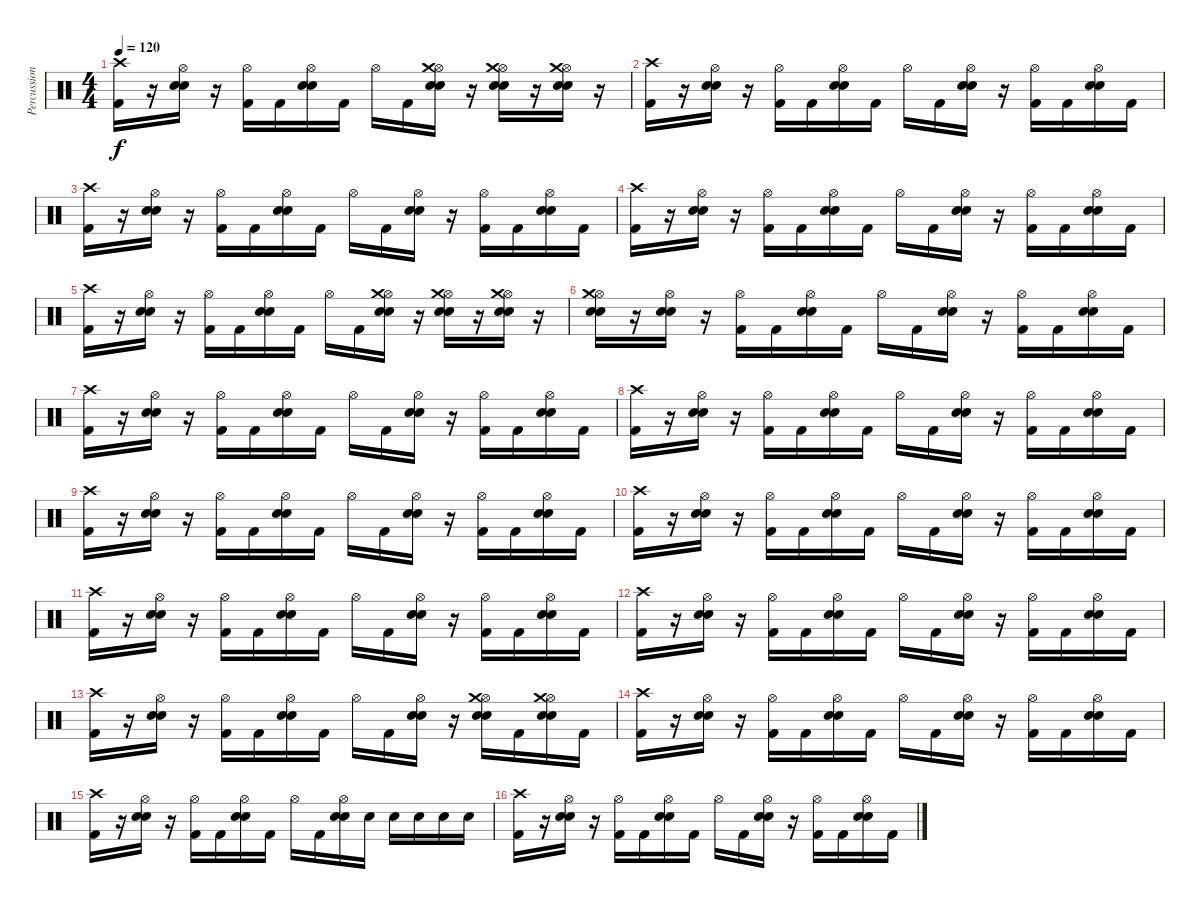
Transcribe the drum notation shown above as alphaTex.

\track ("Percussion" "Percussion") {instrument percussion}
\staff {score}
\articulation defaults
\ts (4 4)
\tempo 120
\clef neutral
\ks c
("Kick (hit) 2" "Crash high (hit)").16{dy f} r.16 ("Hi-Hat (open)" "Electric Snare (hit)" "Snare (hit) 2").16 r.16 ("Kick (hit) 2" "Hi-Hat (open)").16 "Kick (hit) 2".16 ("Electric Snare (hit)" "Hi-Hat (open)" "Snare (hit) 2").16 "Kick (hit) 2".16 "Hi-Hat (open)".16 "Kick (hit) 2".16 ("Hi-Hat (open)" "Electric Snare (hit)" "Snare (hit) 2" "Crash medium (hit)").16 r.16 ("Hi-Hat (open)" "Electric Snare (hit)" "Snare (hit) 2" "Crash medium (hit)").16 r.16 ("Hi-Hat (open)" "Electric Snare (hit)" "Snare (hit) 2" "Crash medium (hit)").16 r.16 |
("Kick (hit) 2" "Crash high (hit)").16 r.16 ("Hi-Hat (open)" "Electric Snare (hit)" "Snare (hit) 2").16 r.16 ("Kick (hit) 2" "Hi-Hat (open)").16 "Kick (hit) 2".16 ("Electric Snare (hit)" "Hi-Hat (open)" "Snare (hit) 2").16 "Kick (hit) 2".16 "Hi-Hat (open)".16 "Kick (hit) 2".16 ("Hi-Hat (open)" "Electric Snare (hit)" "Snare (hit) 2").16 r.16 ("Kick (hit) 2" "Hi-Hat (open)").16 "Kick (hit) 2".16 ("Electric Snare (hit)" "Hi-Hat (open)" "Snare (hit) 2").16 "Kick (hit) 2".16 |
("Kick (hit) 2" "Crash high (hit)").16 r.16 ("Hi-Hat (open)" "Electric Snare (hit)" "Snare (hit) 2").16 r.16 ("Kick (hit) 2" "Hi-Hat (open)").16 "Kick (hit) 2".16 ("Electric Snare (hit)" "Hi-Hat (open)" "Snare (hit) 2").16 "Kick (hit) 2".16 "Hi-Hat (open)".16 "Kick (hit) 2".16 ("Hi-Hat (open)" "Electric Snare (hit)" "Snare (hit) 2").16 r.16 ("Kick (hit) 2" "Hi-Hat (open)").16 "Kick (hit) 2".16 ("Electric Snare (hit)" "Hi-Hat (open)" "Snare (hit) 2").16 "Kick (hit) 2".16 |
("Kick (hit) 2" "Crash high (hit)").16 r.16 ("Hi-Hat (open)" "Electric Snare (hit)" "Snare (hit) 2").16 r.16 ("Kick (hit) 2" "Hi-Hat (open)").16 "Kick (hit) 2".16 ("Electric Snare (hit)" "Hi-Hat (open)" "Snare (hit) 2").16 "Kick (hit) 2".16 "Hi-Hat (open)".16 "Kick (hit) 2".16 ("Hi-Hat (open)" "Electric Snare (hit)" "Snare (hit) 2").16 r.16 ("Kick (hit) 2" "Hi-Hat (open)").16 "Kick (hit) 2".16 ("Electric Snare (hit)" "Hi-Hat (open)" "Snare (hit) 2").16 "Kick (hit) 2".16 |
("Kick (hit) 2" "Crash high (hit)").16 r.16 ("Hi-Hat (open)" "Electric Snare (hit)" "Snare (hit) 2").16 r.16 ("Kick (hit) 2" "Hi-Hat (open)").16 "Kick (hit) 2".16 ("Electric Snare (hit)" "Hi-Hat (open)" "Snare (hit) 2").16 "Kick (hit) 2".16 "Hi-Hat (open)".16 "Kick (hit) 2".16 ("Hi-Hat (open)" "Electric Snare (hit)" "Snare (hit) 2" "Crash medium (hit)").16 r.16 ("Hi-Hat (open)" "Electric Snare (hit)" "Snare (hit) 2" "Crash medium (hit)").16 r.16 ("Hi-Hat (open)" "Electric Snare (hit)" "Snare (hit) 2" "Crash medium (hit)").16 r.16 |
("Hi-Hat (open)" "Electric Snare (hit)" "Snare (hit) 2" "Crash medium (hit)").16 r.16 ("Hi-Hat (open)" "Electric Snare (hit)" "Snare (hit) 2").16 r.16 ("Kick (hit) 2" "Hi-Hat (open)").16 "Kick (hit) 2".16 ("Electric Snare (hit)" "Hi-Hat (open)" "Snare (hit) 2").16 "Kick (hit) 2".16 "Hi-Hat (open)".16 "Kick (hit) 2".16 ("Hi-Hat (open)" "Electric Snare (hit)" "Snare (hit) 2").16 r.16 ("Kick (hit) 2" "Hi-Hat (open)").16 "Kick (hit) 2".16 ("Electric Snare (hit)" "Hi-Hat (open)" "Snare (hit) 2").16 "Kick (hit) 2".16 |
("Kick (hit) 2" "Crash high (hit)").16 r.16 ("Hi-Hat (open)" "Electric Snare (hit)" "Snare (hit) 2").16 r.16 ("Kick (hit) 2" "Hi-Hat (open)").16 "Kick (hit) 2".16 ("Electric Snare (hit)" "Hi-Hat (open)" "Snare (hit) 2").16 "Kick (hit) 2".16 "Hi-Hat (open)".16 "Kick (hit) 2".16 ("Hi-Hat (open)" "Electric Snare (hit)" "Snare (hit) 2").16 r.16 ("Kick (hit) 2" "Hi-Hat (open)").16 "Kick (hit) 2".16 ("Electric Snare (hit)" "Hi-Hat (open)" "Snare (hit) 2").16 "Kick (hit) 2".16 |
("Kick (hit) 2" "Crash high (hit)").16 r.16 ("Hi-Hat (open)" "Electric Snare (hit)" "Snare (hit) 2").16 r.16 ("Kick (hit) 2" "Hi-Hat (open)").16 "Kick (hit) 2".16 ("Electric Snare (hit)" "Hi-Hat (open)" "Snare (hit) 2").16 "Kick (hit) 2".16 "Hi-Hat (open)".16 "Kick (hit) 2".16 ("Hi-Hat (open)" "Electric Snare (hit)" "Snare (hit) 2").16 r.16 ("Kick (hit) 2" "Hi-Hat (open)").16 "Kick (hit) 2".16 ("Electric Snare (hit)" "Hi-Hat (open)" "Snare (hit) 2").16 "Kick (hit) 2".16 |
("Kick (hit) 2" "Crash high (hit)").16 r.16 ("Hi-Hat (open)" "Electric Snare (hit)" "Snare (hit) 2").16 r.16 ("Kick (hit) 2" "Hi-Hat (open)").16 "Kick (hit) 2".16 ("Electric Snare (hit)" "Hi-Hat (open)" "Snare (hit) 2").16 "Kick (hit) 2".16 "Hi-Hat (open)".16 "Kick (hit) 2".16 ("Hi-Hat (open)" "Electric Snare (hit)" "Snare (hit) 2").16 r.16 ("Kick (hit) 2" "Hi-Hat (open)").16 "Kick (hit) 2".16 ("Electric Snare (hit)" "Hi-Hat (open)" "Snare (hit) 2").16 "Kick (hit) 2".16 |
("Kick (hit) 2" "Crash high (hit)").16 r.16 ("Hi-Hat (open)" "Electric Snare (hit)" "Snare (hit) 2").16 r.16 ("Kick (hit) 2" "Hi-Hat (open)").16 "Kick (hit) 2".16 ("Electric Snare (hit)" "Hi-Hat (open)" "Snare (hit) 2").16 "Kick (hit) 2".16 "Hi-Hat (open)".16 "Kick (hit) 2".16 ("Hi-Hat (open)" "Electric Snare (hit)" "Snare (hit) 2").16 r.16 ("Kick (hit) 2" "Hi-Hat (open)").16 "Kick (hit) 2".16 ("Electric Snare (hit)" "Hi-Hat (open)" "Snare (hit) 2").16 "Kick (hit) 2".16 |
("Kick (hit) 2" "Crash high (hit)").16 r.16 ("Hi-Hat (open)" "Electric Snare (hit)" "Snare (hit) 2").16 r.16 ("Kick (hit) 2" "Hi-Hat (open)").16 "Kick (hit) 2".16 ("Electric Snare (hit)" "Hi-Hat (open)" "Snare (hit) 2").16 "Kick (hit) 2".16 "Hi-Hat (open)".16 "Kick (hit) 2".16 ("Hi-Hat (open)" "Electric Snare (hit)" "Snare (hit) 2").16 r.16 ("Kick (hit) 2" "Hi-Hat (open)").16 "Kick (hit) 2".16 ("Electric Snare (hit)" "Hi-Hat (open)" "Snare (hit) 2").16 "Kick (hit) 2".16 |
("Kick (hit) 2" "Crash high (hit)").16 r.16 ("Hi-Hat (open)" "Electric Snare (hit)" "Snare (hit) 2").16 r.16 ("Kick (hit) 2" "Hi-Hat (open)").16 "Kick (hit) 2".16 ("Electric Snare (hit)" "Hi-Hat (open)" "Snare (hit) 2").16 "Kick (hit) 2".16 "Hi-Hat (open)".16 "Kick (hit) 2".16 ("Hi-Hat (open)" "Electric Snare (hit)" "Snare (hit) 2").16 r.16 ("Kick (hit) 2" "Hi-Hat (open)").16 "Kick (hit) 2".16 ("Electric Snare (hit)" "Hi-Hat (open)" "Snare (hit) 2").16 "Kick (hit) 2".16 |
("Kick (hit) 2" "Crash high (hit)").16 r.16 ("Hi-Hat (open)" "Electric Snare (hit)" "Snare (hit) 2").16 r.16 ("Kick (hit) 2" "Hi-Hat (open)").16 "Kick (hit) 2".16 ("Electric Snare (hit)" "Hi-Hat (open)" "Snare (hit) 2").16 "Kick (hit) 2".16 "Hi-Hat (open)".16 "Kick (hit) 2".16 ("Hi-Hat (open)" "Electric Snare (hit)" "Snare (hit) 2").16 r.16 ("Hi-Hat (open)" "Electric Snare (hit)" "Snare (hit) 2" "Crash medium (hit)").16 "Kick (hit) 2".16 ("Hi-Hat (open)" "Electric Snare (hit)" "Snare (hit) 2" "Crash medium (hit)").16 "Kick (hit) 2".16 |
("Kick (hit) 2" "Crash high (hit)").16 r.16 ("Hi-Hat (open)" "Electric Snare (hit)" "Snare (hit) 2").16 r.16 ("Kick (hit) 2" "Hi-Hat (open)").16 "Kick (hit) 2".16 ("Electric Snare (hit)" "Hi-Hat (open)" "Snare (hit) 2").16 "Kick (hit) 2".16 "Hi-Hat (open)".16 "Kick (hit) 2".16 ("Hi-Hat (open)" "Electric Snare (hit)" "Snare (hit) 2").16 r.16 ("Kick (hit) 2" "Hi-Hat (open)").16 "Kick (hit) 2".16 ("Electric Snare (hit)" "Hi-Hat (open)" "Snare (hit) 2").16 "Kick (hit) 2".16 |
("Kick (hit) 2" "Crash high (hit)").16 r.16 ("Hi-Hat (open)" "Electric Snare (hit)" "Snare (hit) 2").16 r.16 ("Kick (hit) 2" "Hi-Hat (open)").16 "Kick (hit) 2".16 ("Electric Snare (hit)" "Hi-Hat (open)" "Snare (hit) 2").16 "Kick (hit) 2".16 "Hi-Hat (open)".16 "Kick (hit) 2".16 ("Hi-Hat (open)" "Electric Snare (hit)" "Snare (hit) 2").16 "Snare (hit) 2".16 "Snare (hit) 2".16 "Snare (hit) 2".16 "Snare (hit) 2".16 "Snare (hit) 2".16 |
("Kick (hit) 2" "Crash high (hit)").16 r.16 ("Hi-Hat (open)" "Electric Snare (hit)" "Snare (hit) 2").16 r.16 ("Kick (hit) 2" "Hi-Hat (open)").16 "Kick (hit) 2".16 ("Electric Snare (hit)" "Hi-Hat (open)" "Snare (hit) 2").16 "Kick (hit) 2".16 "Hi-Hat (open)".16 "Kick (hit) 2".16 ("Hi-Hat (open)" "Electric Snare (hit)" "Snare (hit) 2").16 r.16 ("Kick (hit) 2" "Hi-Hat (open)").16 "Kick (hit) 2".16 ("Electric Snare (hit)" "Hi-Hat (open)" "Snare (hit) 2").16 "Kick (hit) 2".16
